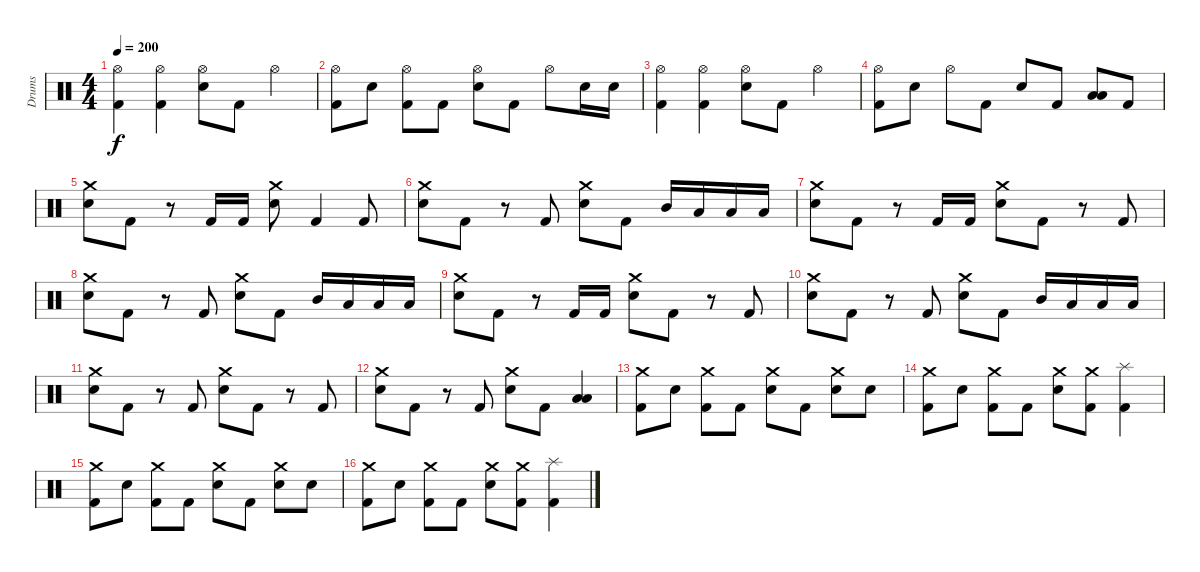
\track ("Drums" "Drums") {instrument percussion}
\staff {score}
\articulation defaults
\ts (4 4)
\tempo 200
\clef neutral
\ks c
("Hi-Hat (open)" "Kick (hit) 2").4{dy f} ("Hi-Hat (open)" "Kick (hit) 2").4 ("Hi-Hat (open)" "Electric Snare (hit)").8 "Kick (hit) 2".8 "Hi-Hat (open)".4 |
("Hi-Hat (open)" "Kick (hit) 2").8 "Electric Snare (hit)".8 ("Hi-Hat (open)" "Kick (hit) 2").8 "Kick (hit) 2".8 ("Hi-Hat (open)" "Electric Snare (hit)").8 "Kick (hit) 2".8 "Hi-Hat (open)".8 "Electric Snare (hit)".16 "Electric Snare (hit)".16 |
("Hi-Hat (open)" "Kick (hit) 2").4 ("Hi-Hat (open)" "Kick (hit) 2").4 ("Hi-Hat (open)" "Electric Snare (hit)").8 "Kick (hit) 2".8 "Hi-Hat (open)".4 |
("Hi-Hat (open)" "Kick (hit) 2").8 "Electric Snare (hit)".8 "Hi-Hat (open)".8 "Kick (hit) 2".8 "Electric Snare (hit)".8 "Kick (hit) 2".8 ("Low Tom (hit)" "Low Floor Tom (hit)").8 "Kick (hit) 2".8 |
("Crash medium (hit)" "Electric Snare (hit)").8 "Kick (hit) 2".8 r.8 "Kick (hit) 2".16 "Kick (hit) 2".16 ("Crash medium (hit)" "Electric Snare (hit)").8 "Kick (hit) 2".4 "Kick (hit) 2".8 |
("Crash medium (hit)" "Electric Snare (hit)").8 "Kick (hit) 2".8 r.8 "Kick (hit) 2".8 ("Crash medium (hit)" "Electric Snare (hit)").8 "Kick (hit) 2".8 "Mid Tom (hit)".16 "Low Tom (hit)".16 "Low Floor Tom (hit)".16 "Low Floor Tom (hit)".16 |
("Crash medium (hit)" "Electric Snare (hit)").8 "Kick (hit) 2".8 r.8 "Kick (hit) 2".16 "Kick (hit) 2".16 ("Crash medium (hit)" "Electric Snare (hit)").8 "Kick (hit) 2".8 r.8 "Kick (hit) 2".8 |
("Crash medium (hit)" "Electric Snare (hit)").8 "Kick (hit) 2".8 r.8 "Kick (hit) 2".8 ("Crash medium (hit)" "Electric Snare (hit)").8 "Kick (hit) 2".8 "Mid Tom (hit)".16 "Low Tom (hit)".16 "Low Floor Tom (hit)".16 "Low Floor Tom (hit)".16 |
("Crash medium (hit)" "Electric Snare (hit)").8 "Kick (hit) 2".8 r.8 "Kick (hit) 2".16 "Kick (hit) 2".16 ("Crash medium (hit)" "Electric Snare (hit)").8 "Kick (hit) 2".8 r.8 "Kick (hit) 2".8 |
("Crash medium (hit)" "Electric Snare (hit)").8 "Kick (hit) 2".8 r.8 "Kick (hit) 2".8 ("Crash medium (hit)" "Electric Snare (hit)").8 "Kick (hit) 2".8 "Mid Tom (hit)".16 "Low Tom (hit)".16 "Low Floor Tom (hit)".16 "Low Floor Tom (hit)".16 |
("Crash medium (hit)" "Electric Snare (hit)").8 "Kick (hit) 2".8 r.8 "Kick (hit) 2".8 ("Crash medium (hit)" "Electric Snare (hit)").8 "Kick (hit) 2".8 r.8 "Kick (hit) 2".8 |
("Crash medium (hit)" "Electric Snare (hit)").8 "Kick (hit) 2".8 r.8 "Kick (hit) 2".8 ("Crash medium (hit)" "Electric Snare (hit)").8 "Kick (hit) 2".8 ("Low Tom (hit)" "Low Floor Tom (hit)").4 |
("Crash medium (hit)" "Kick (hit) 2").8 "Electric Snare (hit)".8 ("Crash medium (hit)" "Kick (hit) 2").8 "Kick (hit) 2".8 ("Crash medium (hit)" "Electric Snare (hit)").8 "Kick (hit) 2".8 ("Crash medium (hit)" "Electric Snare (hit)").8 "Electric Snare (hit)".8 |
("Crash medium (hit)" "Kick (hit) 2").8 "Electric Snare (hit)".8 ("Crash medium (hit)" "Kick (hit) 2").8 "Kick (hit) 2".8 ("Crash medium (hit)" "Electric Snare (hit)").8 ("Crash medium (hit)" "Kick (hit) 2").8 ("Splash (hit)" "Kick (hit) 2").4 |
("Crash medium (hit)" "Kick (hit) 2").8 "Electric Snare (hit)".8 ("Crash medium (hit)" "Kick (hit) 2").8 "Kick (hit) 2".8 ("Crash medium (hit)" "Electric Snare (hit)").8 "Kick (hit) 2".8 ("Crash medium (hit)" "Electric Snare (hit)").8 "Electric Snare (hit)".8 |
("Crash medium (hit)" "Kick (hit) 2").8 "Electric Snare (hit)".8 ("Crash medium (hit)" "Kick (hit) 2").8 "Kick (hit) 2".8 ("Crash medium (hit)" "Electric Snare (hit)").8 ("Crash medium (hit)" "Kick (hit) 2").8 ("Splash (hit)" "Kick (hit) 2").4
